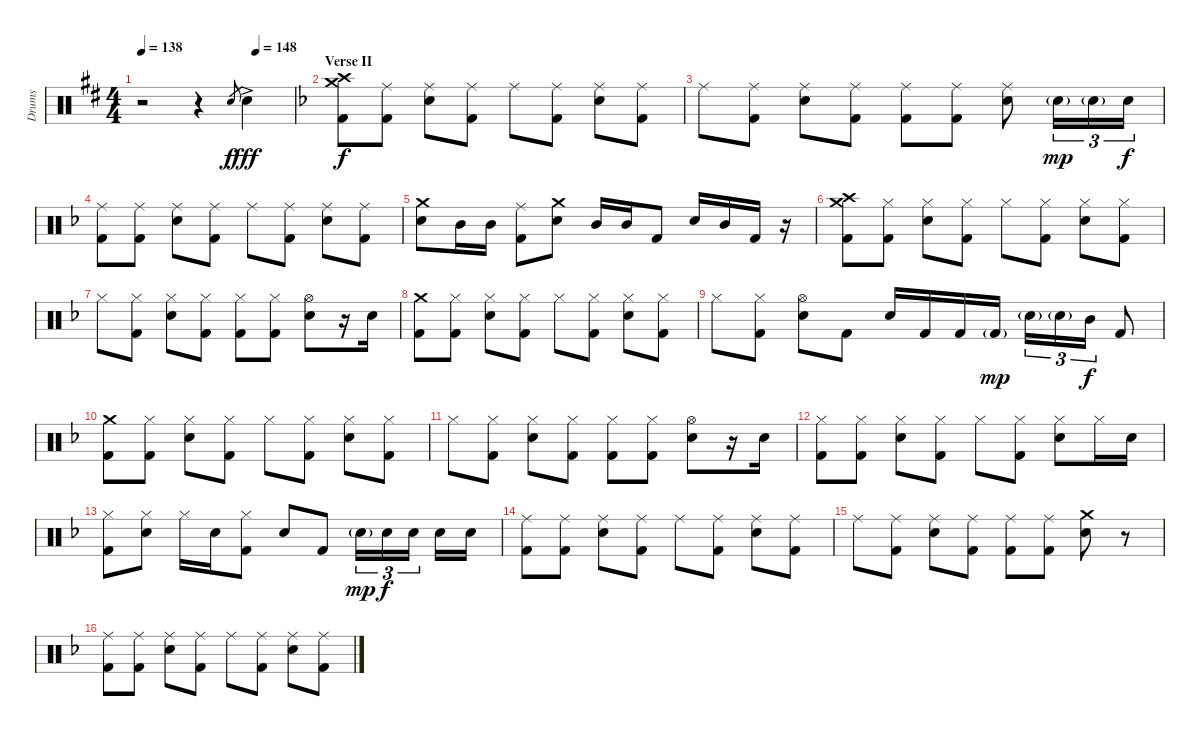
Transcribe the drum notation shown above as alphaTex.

\track ("Drums" "Drums") {instrument percussion}
\staff {score}
\articulation defaults
\ts (4 4)
\tempo 138
\tempo (148 0.75)
\clef neutral
\ks d
r.2{dy mp} r.4 "Snare (hit) 2".8{gr dy f} "Snare (hit) 2"{ac}.4{dy fff} |
\section ("" "Verse II")
\ks dminor
("Crash high (hit)" "Crash medium (hit)" "Kick (hit) 2").8{dy f} ("Ride (middle)" "Kick (hit) 2").8 ("Ride (middle)" "Snare (hit) 2").8 ("Ride (middle)" "Kick (hit) 2").8 "Ride (middle)".8 ("Ride (middle)" "Kick (hit) 2").8 ("Ride (middle)" "Snare (hit) 2").8 ("Ride (middle)" "Kick (hit) 2").8 |
"Ride (middle)".8 ("Ride (middle)" "Kick (hit) 2").8 ("Ride (middle)" "Snare (hit) 2").8 ("Ride (middle)" "Kick (hit) 2").8 ("Ride (middle)" "Kick (hit) 2").8 ("Ride (middle)" "Kick (hit) 2").8 ("Ride (middle)" "Snare (hit) 2").8 "Snare (hit) 2"{g}.16{tu (3 2) dy mp} "Snare (hit) 2"{g}.16{tu (3 2)} "Snare (hit) 2".16{tu (3 2) dy f} |
("Ride (middle)" "Kick (hit) 2").8 ("Ride (middle)" "Kick (hit) 2").8 ("Ride (middle)" "Snare (hit) 2").8 ("Ride (middle)" "Kick (hit) 2").8 "Ride (middle)".8 ("Ride (middle)" "Kick (hit) 2").8 ("Ride (middle)" "Snare (hit) 2").8 ("Ride (middle)" "Kick (hit) 2").8 |
("Crash medium (hit)" "Snare (hit) 2").8 "Mid Tom (hit)".16 "Mid Tom (hit)".16 ("Ride (middle)" "Kick (hit) 2").8 ("Crash medium (hit)" "Snare (hit) 2").8 "Mid Tom (hit)".16 "Mid Tom (hit)".16 "Kick (hit) 2".8 "Snare (hit) 2".16 "Mid Tom (hit)".16 "Kick (hit) 2".16 r.16 |
("Crash high (hit)" "Crash medium (hit)" "Kick (hit) 2").8 ("Hi-Hat (closed)" "Kick (hit) 2").8 ("Hi-Hat (closed)" "Snare (hit) 2").8 ("Hi-Hat (closed)" "Kick (hit) 2").8 "Hi-Hat (closed)".8 ("Hi-Hat (closed)" "Kick (hit) 2").8 ("Hi-Hat (closed)" "Snare (hit) 2").8 ("Hi-Hat (closed)" "Kick (hit) 2").8 |
"Hi-Hat (closed)".8 ("Hi-Hat (closed)" "Kick (hit) 2").8 ("Hi-Hat (closed)" "Snare (hit) 2").8 ("Hi-Hat (closed)" "Kick (hit) 2").8 ("Hi-Hat (closed)" "Kick (hit) 2").8 ("Hi-Hat (closed)" "Kick (hit) 2").8 ("Hi-Hat (open)" "Snare (hit) 2").8 r.16 "Snare (hit) 2".16 |
("Crash medium (hit)" "Kick (hit) 2").8 ("Hi-Hat (closed)" "Kick (hit) 2").8 ("Hi-Hat (closed)" "Snare (hit) 2").8 ("Hi-Hat (closed)" "Kick (hit) 2").8 "Hi-Hat (closed)".8 ("Hi-Hat (closed)" "Kick (hit) 2").8 ("Hi-Hat (closed)" "Snare (hit) 2").8 ("Hi-Hat (closed)" "Kick (hit) 2").8 |
"Hi-Hat (closed)".8 ("Hi-Hat (closed)" "Kick (hit) 2").8 ("Hi-Hat (open)" "Snare (hit) 2").8 "Kick (hit) 2".8 "Snare (hit) 2".16 "Kick (hit) 2".16 "Kick (hit) 2".16 "Kick (hit) 2"{g}.16{dy mp} "Snare (hit) 2"{g}.16{tu (3 2)} "Snare (hit) 2"{g}.16{tu (3 2)} "Mid Tom (hit)".16{tu (3 2) dy f} "Kick (hit) 2".8 |
("Crash medium (hit)" "Kick (hit) 2").8 ("Hi-Hat (closed)" "Kick (hit) 2").8 ("Hi-Hat (closed)" "Snare (hit) 2").8 ("Hi-Hat (closed)" "Kick (hit) 2").8 "Hi-Hat (closed)".8 ("Hi-Hat (closed)" "Kick (hit) 2").8 ("Hi-Hat (closed)" "Snare (hit) 2").8 ("Hi-Hat (closed)" "Kick (hit) 2").8 |
"Hi-Hat (closed)".8 ("Hi-Hat (closed)" "Kick (hit) 2").8 ("Hi-Hat (closed)" "Snare (hit) 2").8 ("Hi-Hat (closed)" "Kick (hit) 2").8 ("Hi-Hat (closed)" "Kick (hit) 2").8 ("Hi-Hat (closed)" "Kick (hit) 2").8 ("Hi-Hat (open)" "Snare (hit) 2").8 r.16 "Snare (hit) 2".16 |
("Hi-Hat (closed)" "Kick (hit) 2").8 ("Hi-Hat (closed)" "Kick (hit) 2").8 ("Hi-Hat (closed)" "Snare (hit) 2").8 ("Hi-Hat (closed)" "Kick (hit) 2").8 "Hi-Hat (closed)".8 ("Hi-Hat (closed)" "Kick (hit) 2").8 ("Hi-Hat (closed)" "Snare (hit) 2").8 "Hi-Hat (closed)".16 "Snare (hit) 2".16 |
("Hi-Hat (closed)" "Kick (hit) 2").8 ("Hi-Hat (closed)" "Snare (hit) 2").8 "Hi-Hat (closed)".16 "Snare (hit) 2".16 ("Hi-Hat (closed)" "Kick (hit) 2").8 "Snare (hit) 2".8 "Kick (hit) 2".8 "Snare (hit) 2"{g}.16{tu (3 2) dy mp} "Snare (hit) 2".16{tu (3 2) dy f} "Snare (hit) 2".16{tu (3 2)} "Snare (hit) 2".16 "Snare (hit) 2".16 |
("Ride (middle)" "Kick (hit) 2").8 ("Ride (middle)" "Kick (hit) 2").8 ("Ride (middle)" "Snare (hit) 2").8 ("Ride (middle)" "Kick (hit) 2").8 "Ride (middle)".8 ("Ride (middle)" "Kick (hit) 2").8 ("Ride (middle)" "Snare (hit) 2").8 ("Ride (middle)" "Kick (hit) 2").8 |
"Ride (middle)".8 ("Ride (middle)" "Kick (hit) 2").8 ("Ride (middle)" "Snare (hit) 2").8 ("Ride (middle)" "Kick (hit) 2").8 ("Ride (middle)" "Kick (hit) 2").8 ("Ride (middle)" "Kick (hit) 2").8 ("Crash medium (hit)" "Snare (hit) 2").8 r.8 |
("Ride (middle)" "Kick (hit) 2").8 ("Ride (middle)" "Kick (hit) 2").8 ("Ride (middle)" "Snare (hit) 2").8 ("Ride (middle)" "Kick (hit) 2").8 "Ride (middle)".8 ("Ride (middle)" "Kick (hit) 2").8 ("Ride (middle)" "Snare (hit) 2").8 ("Ride (middle)" "Kick (hit) 2").8
